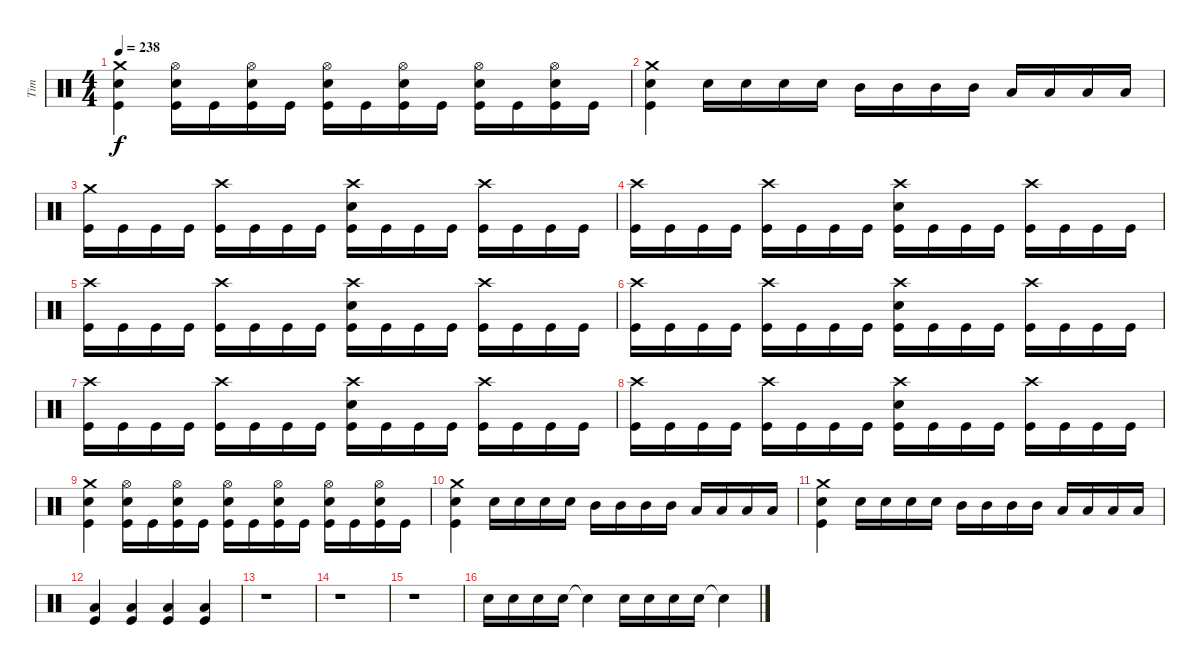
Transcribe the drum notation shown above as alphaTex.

\track ("Tim" "Tim") {instrument percussion}
\staff {score}
\articulation defaults
\ts (4 4)
\tempo 238
\clef neutral
\ks c
("Crash medium (hit)" "Electric Snare (hit)" "Kick (hit)").4{dy f} ("Hi-Hat (open)" "Electric Snare (hit)" "Kick (hit)").16 "Kick (hit)".16 ("Hi-Hat (open)" "Electric Snare (hit)" "Kick (hit)").16 "Kick (hit)".16 ("Hi-Hat (open)" "Electric Snare (hit)" "Kick (hit)").16 "Kick (hit)".16 ("Hi-Hat (open)" "Electric Snare (hit)" "Kick (hit)").16 "Kick (hit)".16 ("Hi-Hat (open)" "Electric Snare (hit)" "Kick (hit)").16 "Kick (hit)".16 ("Hi-Hat (open)" "Electric Snare (hit)" "Kick (hit)").16 "Kick (hit)".16 |
("Crash medium (hit)" "Electric Snare (hit)" "Kick (hit)").4 "Electric Snare (hit)".16 "Electric Snare (hit)".16 "Electric Snare (hit)".16 "Electric Snare (hit)".16 "Mid Tom (hit)".16 "Mid Tom (hit)".16 "Mid Tom (hit)".16 "Mid Tom (hit)".16 "Low Tom (hit)".16 "Low Tom (hit)".16 "Low Tom (hit)".16 "Low Tom (hit)".16 |
("Crash medium (hit)" "Kick (hit)").16 "Kick (hit)".16 "Kick (hit)".16 "Kick (hit)".16 ("Crash high (hit)" "Kick (hit)").16 "Kick (hit)".16 "Kick (hit)".16 "Kick (hit)".16 ("Crash high (hit)" "Electric Snare (hit)" "Kick (hit)").16 "Kick (hit)".16 "Kick (hit)".16 "Kick (hit)".16 ("Crash high (hit)" "Kick (hit)").16 "Kick (hit)".16 "Kick (hit)".16 "Kick (hit)".16 |
("Crash high (hit)" "Kick (hit)").16 "Kick (hit)".16 "Kick (hit)".16 "Kick (hit)".16 ("Crash high (hit)" "Kick (hit)").16 "Kick (hit)".16 "Kick (hit)".16 "Kick (hit)".16 ("Crash high (hit)" "Electric Snare (hit)" "Kick (hit)").16 "Kick (hit)".16 "Kick (hit)".16 "Kick (hit)".16 ("Crash high (hit)" "Kick (hit)").16 "Kick (hit)".16 "Kick (hit)".16 "Kick (hit)".16 |
("Crash high (hit)" "Kick (hit)").16 "Kick (hit)".16 "Kick (hit)".16 "Kick (hit)".16 ("Crash high (hit)" "Kick (hit)").16 "Kick (hit)".16 "Kick (hit)".16 "Kick (hit)".16 ("Crash high (hit)" "Electric Snare (hit)" "Kick (hit)").16 "Kick (hit)".16 "Kick (hit)".16 "Kick (hit)".16 ("Crash high (hit)" "Kick (hit)").16 "Kick (hit)".16 "Kick (hit)".16 "Kick (hit)".16 |
("Crash high (hit)" "Kick (hit)").16 "Kick (hit)".16 "Kick (hit)".16 "Kick (hit)".16 ("Crash high (hit)" "Kick (hit)").16 "Kick (hit)".16 "Kick (hit)".16 "Kick (hit)".16 ("Crash high (hit)" "Electric Snare (hit)" "Kick (hit)").16 "Kick (hit)".16 "Kick (hit)".16 "Kick (hit)".16 ("Crash high (hit)" "Kick (hit)").16 "Kick (hit)".16 "Kick (hit)".16 "Kick (hit)".16 |
("Crash high (hit)" "Kick (hit)").16 "Kick (hit)".16 "Kick (hit)".16 "Kick (hit)".16 ("Crash high (hit)" "Kick (hit)").16 "Kick (hit)".16 "Kick (hit)".16 "Kick (hit)".16 ("Crash high (hit)" "Electric Snare (hit)" "Kick (hit)").16 "Kick (hit)".16 "Kick (hit)".16 "Kick (hit)".16 ("Crash high (hit)" "Kick (hit)").16 "Kick (hit)".16 "Kick (hit)".16 "Kick (hit)".16 |
("Crash high (hit)" "Kick (hit)").16 "Kick (hit)".16 "Kick (hit)".16 "Kick (hit)".16 ("Crash high (hit)" "Kick (hit)").16 "Kick (hit)".16 "Kick (hit)".16 "Kick (hit)".16 ("Crash high (hit)" "Electric Snare (hit)" "Kick (hit)").16 "Kick (hit)".16 "Kick (hit)".16 "Kick (hit)".16 ("Crash high (hit)" "Kick (hit)").16 "Kick (hit)".16 "Kick (hit)".16 "Kick (hit)".16 |
("Crash medium (hit)" "Electric Snare (hit)" "Kick (hit)").4 ("Hi-Hat (open)" "Electric Snare (hit)" "Kick (hit)").16 "Kick (hit)".16 ("Hi-Hat (open)" "Electric Snare (hit)" "Kick (hit)").16 "Kick (hit)".16 ("Hi-Hat (open)" "Electric Snare (hit)" "Kick (hit)").16 "Kick (hit)".16 ("Hi-Hat (open)" "Electric Snare (hit)" "Kick (hit)").16 "Kick (hit)".16 ("Hi-Hat (open)" "Electric Snare (hit)" "Kick (hit)").16 "Kick (hit)".16 ("Hi-Hat (open)" "Electric Snare (hit)" "Kick (hit)").16 "Kick (hit)".16 |
("Crash medium (hit)" "Electric Snare (hit)" "Kick (hit)").4 "Electric Snare (hit)".16 "Electric Snare (hit)".16 "Electric Snare (hit)".16 "Electric Snare (hit)".16 "Mid Tom (hit)".16 "Mid Tom (hit)".16 "Mid Tom (hit)".16 "Mid Tom (hit)".16 "Low Tom (hit)".16 "Low Tom (hit)".16 "Low Tom (hit)".16 "Low Tom (hit)".16 |
("Crash medium (hit)" "Electric Snare (hit)" "Kick (hit)").4 "Electric Snare (hit)".16 "Electric Snare (hit)".16 "Electric Snare (hit)".16 "Electric Snare (hit)".16 "Mid Tom (hit)".16 "Mid Tom (hit)".16 "Mid Tom (hit)".16 "Mid Tom (hit)".16 "Low Tom (hit)".16 "Low Tom (hit)".16 "Low Tom (hit)".16 "Low Tom (hit)".16 |
("Low Floor Tom (hit)" "Kick (hit)").4 ("Low Floor Tom (hit)" "Kick (hit)").4 ("Low Floor Tom (hit)" "Kick (hit)").4 ("Low Floor Tom (hit)" "Kick (hit)").4 |
r.1 |
r.1 |
r.1 |
"Electric Snare (hit)".16 "Electric Snare (hit)".16 "Electric Snare (hit)".16 "Electric Snare (hit)".16 "Snare (hit)"{t}.4 "Electric Snare (hit)".16 "Electric Snare (hit)".16 "Electric Snare (hit)".16 "Electric Snare (hit)".16 "Snare (hit)"{t}.4
